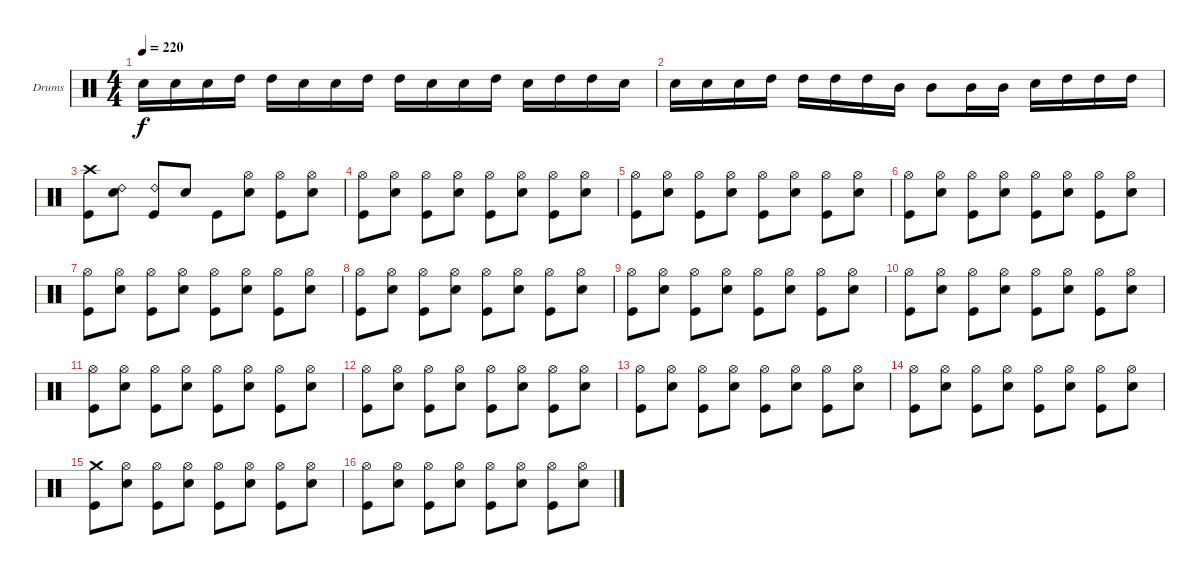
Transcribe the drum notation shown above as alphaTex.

\bracketExtendMode groupsimilarinstruments
\firstSystemTrackNameOrientation horizontal
\otherSystemsTrackNameOrientation horizontal
\track ("Dave Lombardo" "Drums") {instrument percussion}
\staff {score}
\articulation defaults
\ts (4 4)
\tempo 220
\clef neutral
\ks c "Snare (hit) 2".16{dy f} "Snare (hit) 2".16 "Snare (hit) 2".16 "High Tom (hit)".16 "High Tom (hit)".16 "Snare (hit) 2".16 "Snare (hit) 2".16 "High Tom (hit)".16 "High Tom (hit)".16 "Snare (hit) 2".16 "Snare (hit) 2".16 "High Tom (hit)".16 "Snare (hit) 2".16 "High Tom (hit)".16 "High Tom (hit)".16 "Snare (hit) 2".16
|
"Snare (hit) 2".16 "Snare (hit) 2".16 "Snare (hit) 2".16 "High Tom (hit)".16 "High Tom (hit)".16 "High Tom (hit)".16 "High Tom (hit)".16 "Mid Tom (hit)".16 "Mid Tom (hit)".8 "Mid Tom (hit)".16 "Mid Tom (hit)".16 "Snare (hit) 2".16 "High Tom (hit)".16 "High Tom (hit)".16 "High Tom (hit)".16 |
("Kick (hit)" "Crash high (hit)").8 ("Snare (hit) 2" "Ride (bell) 2").8 ("Kick (hit)" "Ride (bell) 2").8 "Snare (hit) 2".8 "Kick (hit)".8 ("Snare (hit) 2" "Hi-Hat (open)").8 ("Kick (hit)" "Hi-Hat (open)").8 ("Snare (hit) 2" "Hi-Hat (open)").8 |
("Kick (hit)" "Hi-Hat (open)").8 ("Snare (hit) 2" "Hi-Hat (open)").8 ("Kick (hit)" "Hi-Hat (open)").8 ("Snare (hit) 2" "Hi-Hat (open)").8 ("Kick (hit)" "Hi-Hat (open)").8 ("Snare (hit) 2" "Hi-Hat (open)").8 ("Kick (hit)" "Hi-Hat (open)").8 ("Snare (hit) 2" "Hi-Hat (open)").8 |
("Kick (hit)" "Hi-Hat (open)").8 ("Snare (hit) 2" "Hi-Hat (open)").8 ("Kick (hit)" "Hi-Hat (open)").8 ("Snare (hit) 2" "Hi-Hat (open)").8 ("Kick (hit)" "Hi-Hat (open)").8 ("Snare (hit) 2" "Hi-Hat (open)").8 ("Kick (hit)" "Hi-Hat (open)").8 ("Snare (hit) 2" "Hi-Hat (open)").8 |
("Kick (hit)" "Hi-Hat (open)").8 ("Snare (hit) 2" "Hi-Hat (open)").8 ("Kick (hit)" "Hi-Hat (open)").8 ("Snare (hit) 2" "Hi-Hat (open)").8 ("Kick (hit)" "Hi-Hat (open)").8 ("Snare (hit) 2" "Hi-Hat (open)").8 ("Kick (hit)" "Hi-Hat (open)").8 ("Snare (hit) 2" "Hi-Hat (open)").8 |
("Kick (hit)" "Hi-Hat (open)").8 ("Snare (hit) 2" "Hi-Hat (open)").8 ("Kick (hit)" "Hi-Hat (open)").8 ("Snare (hit) 2" "Hi-Hat (open)").8 ("Kick (hit)" "Hi-Hat (open)").8 ("Snare (hit) 2" "Hi-Hat (open)").8 ("Kick (hit)" "Hi-Hat (open)").8 ("Snare (hit) 2" "Hi-Hat (open)").8 |
("Kick (hit)" "Hi-Hat (open)").8 ("Snare (hit) 2" "Hi-Hat (open)").8 ("Kick (hit)" "Hi-Hat (open)").8 ("Snare (hit) 2" "Hi-Hat (open)").8 ("Kick (hit)" "Hi-Hat (open)").8 ("Snare (hit) 2" "Hi-Hat (open)").8 ("Kick (hit)" "Hi-Hat (open)").8 ("Snare (hit) 2" "Hi-Hat (open)").8 |
("Kick (hit)" "Hi-Hat (open)").8 ("Snare (hit) 2" "Hi-Hat (open)").8 ("Kick (hit)" "Hi-Hat (open)").8 ("Snare (hit) 2" "Hi-Hat (open)").8 ("Kick (hit)" "Hi-Hat (open)").8 ("Snare (hit) 2" "Hi-Hat (open)").8 ("Kick (hit)" "Hi-Hat (open)").8 ("Snare (hit) 2" "Hi-Hat (open)").8 |
("Kick (hit)" "Hi-Hat (open)").8 ("Snare (hit) 2" "Hi-Hat (open)").8 ("Kick (hit)" "Hi-Hat (open)").8 ("Snare (hit) 2" "Hi-Hat (open)").8 ("Kick (hit)" "Hi-Hat (open)").8 ("Snare (hit) 2" "Hi-Hat (open)").8 ("Kick (hit)" "Hi-Hat (open)").8 ("Snare (hit) 2" "Hi-Hat (open)").8 |
("Kick (hit)" "Hi-Hat (open)").8 ("Snare (hit) 2" "Hi-Hat (open)").8 ("Kick (hit)" "Hi-Hat (open)").8 ("Snare (hit) 2" "Hi-Hat (open)").8 ("Kick (hit)" "Hi-Hat (open)").8 ("Snare (hit) 2" "Hi-Hat (open)").8 ("Kick (hit)" "Hi-Hat (open)").8 ("Snare (hit) 2" "Hi-Hat (open)").8 |
("Kick (hit)" "Hi-Hat (open)").8 ("Snare (hit) 2" "Hi-Hat (open)").8 ("Kick (hit)" "Hi-Hat (open)").8 ("Snare (hit) 2" "Hi-Hat (open)").8 ("Kick (hit)" "Hi-Hat (open)").8 ("Snare (hit) 2" "Hi-Hat (open)").8 ("Kick (hit)" "Hi-Hat (open)").8 ("Snare (hit) 2" "Hi-Hat (open)").8 |
("Kick (hit)" "Hi-Hat (open)").8 ("Snare (hit) 2" "Hi-Hat (open)").8 ("Kick (hit)" "Hi-Hat (open)").8 ("Snare (hit) 2" "Hi-Hat (open)").8 ("Kick (hit)" "Hi-Hat (open)").8 ("Snare (hit) 2" "Hi-Hat (open)").8 ("Kick (hit)" "Hi-Hat (open)").8 ("Snare (hit) 2" "Hi-Hat (open)").8 |
("Kick (hit)" "Hi-Hat (open)").8 ("Snare (hit) 2" "Hi-Hat (open)").8 ("Kick (hit)" "Hi-Hat (open)").8 ("Snare (hit) 2" "Hi-Hat (open)").8 ("Kick (hit)" "Hi-Hat (open)").8 ("Snare (hit) 2" "Hi-Hat (open)").8 ("Kick (hit)" "Hi-Hat (open)").8 ("Snare (hit) 2" "Hi-Hat (open)").8 |
("Kick (hit)" "Crash medium (hit)").8 ("Snare (hit) 2" "Hi-Hat (open)").8 ("Kick (hit)" "Hi-Hat (open)").8 ("Snare (hit) 2" "Hi-Hat (open)").8 ("Kick (hit)" "Hi-Hat (open)").8 ("Snare (hit) 2" "Hi-Hat (open)").8 ("Kick (hit)" "Hi-Hat (open)").8 ("Snare (hit) 2" "Hi-Hat (open)").8 |
("Kick (hit)" "Hi-Hat (open)").8 ("Snare (hit) 2" "Hi-Hat (open)").8 ("Kick (hit)" "Hi-Hat (open)").8 ("Snare (hit) 2" "Hi-Hat (open)").8 ("Kick (hit)" "Hi-Hat (open)").8 ("Snare (hit) 2" "Hi-Hat (open)").8 ("Kick (hit)" "Hi-Hat (open)").8 ("Snare (hit) 2" "Hi-Hat (open)").8
